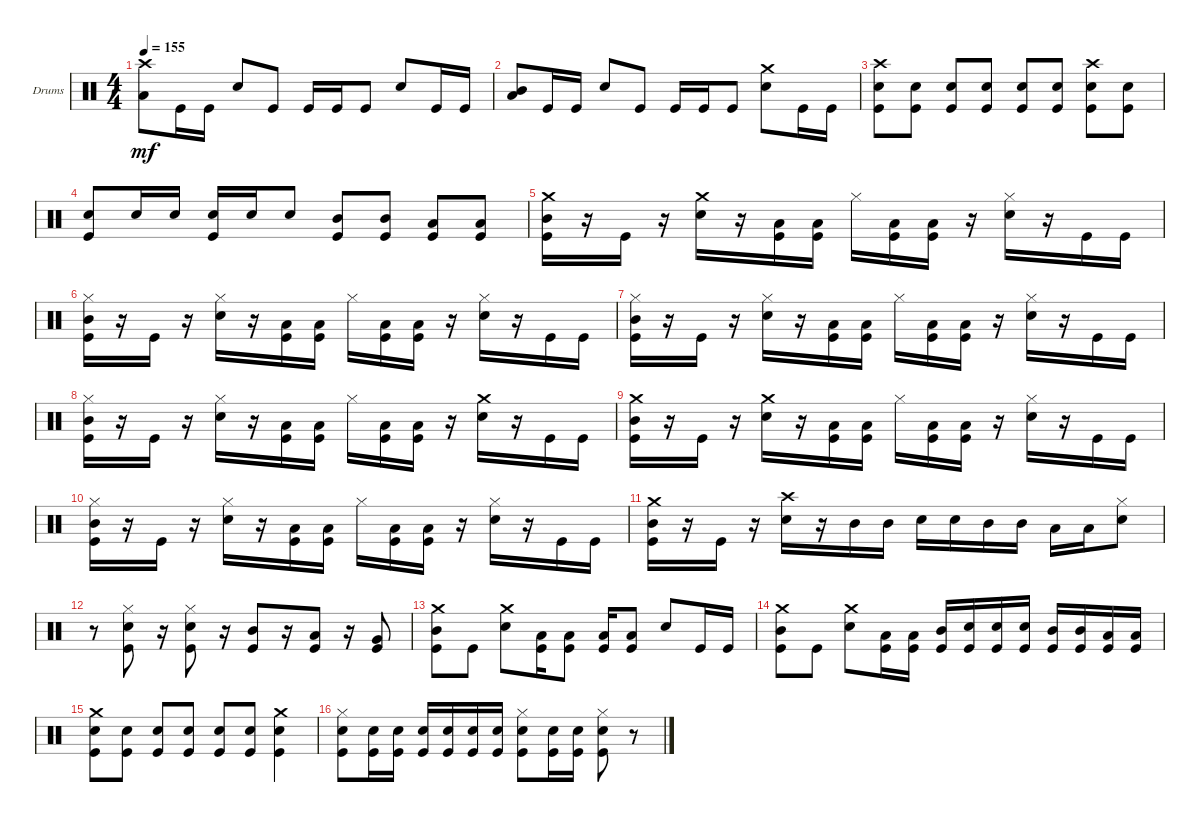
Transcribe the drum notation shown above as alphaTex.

\defaultSystemsLayout 4
\bracketExtendMode groupsimilarinstruments
\firstSystemTrackNameOrientation horizontal
\otherSystemsTrackNameOrientation horizontal
\track ("Drumkit" "Drums") {instrument percussion}
\staff {score}
\articulation defaults
\ts (4 4)
\tempo 155
\clef neutral
\ks c
("Low Tom (hit)" "Crash high (hit)").8{dy mf} "Kick (hit)".16 "Kick (hit)".16 "Snare (hit) 2".8 "Kick (hit)".8 "Kick (hit)".16 "Kick (hit)".16 "Kick (hit)".8 "Snare (hit) 2".8 "Kick (hit)".16 "Kick (hit)".16 |
("Low Tom (hit)" "Mid Tom (hit)").8 "Kick (hit)".16 "Kick (hit)".16 "Snare (hit) 2".8 "Kick (hit)".8 "Kick (hit)".16 "Kick (hit)".16 "Kick (hit)".8 ("Snare (hit) 2" "Crash medium (hit)").8 "Kick (hit)".16 "Kick (hit)".16 |
("Kick (hit)" "Snare (hit) 2" "Crash high (hit)").8 ("Kick (hit)" "Snare (hit) 2").8 ("Kick (hit)" "Snare (hit) 2").8 ("Kick (hit)" "Snare (hit) 2").8 ("Kick (hit)" "Snare (hit) 2").8 ("Kick (hit)" "Snare (hit) 2").8 ("Kick (hit)" "Snare (hit) 2" "Crash high (hit)").8 ("Kick (hit)" "Snare (hit) 2").8 |
("Kick (hit)" "Snare (hit) 2").8 "Snare (hit) 2".16 "Snare (hit) 2".16 ("Kick (hit)" "Snare (hit) 2").16 "Snare (hit) 2".16 "Snare (hit) 2".8 ("Kick (hit)" "Mid Tom (hit)").8 ("Kick (hit)" "Mid Tom (hit)").8 ("Kick (hit)" "Low Tom (hit)").8 ("Kick (hit)" "Low Tom (hit)").8 |
("Kick (hit)" "Mid Tom (hit)" "Crash medium (hit)").16 r.16 "Kick (hit)".16 r.16 ("Snare (hit) 2" "Crash medium (hit)").16 r.16 ("Kick (hit)" "Low Tom (hit)").16 ("Kick (hit)" "Low Tom (hit)").16 "Hi-Hat (closed)".16 ("Kick (hit)" "Low Tom (hit)").16 ("Kick (hit)" "Low Tom (hit)").16 r.16 ("Snare (hit) 2" "Hi-Hat (closed)").16 r.16 "Kick (hit)".16 "Kick (hit)".16 |
("Kick (hit)" "Mid Tom (hit)" "Hi-Hat (closed)").16 r.16 "Kick (hit)".16 r.16 ("Snare (hit) 2" "Hi-Hat (closed)").16 r.16 ("Kick (hit)" "Low Tom (hit)").16 ("Kick (hit)" "Low Tom (hit)").16 "Hi-Hat (closed)".16 ("Kick (hit)" "Low Tom (hit)").16 ("Kick (hit)" "Low Tom (hit)").16 r.16 ("Snare (hit) 2" "Hi-Hat (closed)").16 r.16 "Kick (hit)".16 "Kick (hit)".16 |
("Kick (hit)" "Mid Tom (hit)" "Hi-Hat (closed)").16 r.16 "Kick (hit)".16 r.16 ("Snare (hit) 2" "Hi-Hat (closed)").16 r.16 ("Kick (hit)" "Low Tom (hit)").16 ("Kick (hit)" "Low Tom (hit)").16 "Hi-Hat (closed)".16 ("Kick (hit)" "Low Tom (hit)").16 ("Kick (hit)" "Low Tom (hit)").16 r.16 ("Snare (hit) 2" "Hi-Hat (closed)").16 r.16 "Kick (hit)".16 "Kick (hit)".16 |
("Kick (hit)" "Mid Tom (hit)" "Hi-Hat (closed)").16 r.16 "Kick (hit)".16 r.16 ("Snare (hit) 2" "Hi-Hat (closed)").16 r.16 ("Kick (hit)" "Low Tom (hit)").16 ("Kick (hit)" "Low Tom (hit)").16 "Hi-Hat (closed)".16 ("Kick (hit)" "Low Tom (hit)").16 ("Kick (hit)" "Low Tom (hit)").16 r.16 ("Snare (hit) 2" "Crash medium (hit)").16 r.16 "Kick (hit)".16 "Kick (hit)".16 |
("Kick (hit)" "Mid Tom (hit)" "Crash medium (hit)").16 r.16 "Kick (hit)".16 r.16 ("Snare (hit) 2" "Crash medium (hit)").16 r.16 ("Kick (hit)" "Low Tom (hit)").16 ("Kick (hit)" "Low Tom (hit)").16 "Hi-Hat (closed)".16 ("Kick (hit)" "Low Tom (hit)").16 ("Kick (hit)" "Low Tom (hit)").16 r.16 ("Snare (hit) 2" "Hi-Hat (closed)").16 r.16 "Kick (hit)".16 "Kick (hit)".16 |
("Kick (hit)" "Mid Tom (hit)" "Hi-Hat (closed)").16 r.16 "Kick (hit)".16 r.16 ("Snare (hit) 2" "Hi-Hat (closed)").16 r.16 ("Kick (hit)" "Low Tom (hit)").16 ("Kick (hit)" "Low Tom (hit)").16 "Hi-Hat (closed)".16 ("Kick (hit)" "Low Tom (hit)").16 ("Kick (hit)" "Low Tom (hit)").16 r.16 ("Snare (hit) 2" "Hi-Hat (closed)").16 r.16 "Kick (hit)".16 "Kick (hit)".16 |
("Kick (hit)" "Mid Tom (hit)" "Crash medium (hit)").16 r.16 "Kick (hit)".16 r.16 ("Snare (hit) 2" "Crash high (hit)").16 r.16 "Mid Tom (hit)".16 "Mid Tom (hit)".16 "Snare (hit) 2".16 "Snare (hit) 2".16 "Mid Tom (hit)".16 "Mid Tom (hit)".16 "Low Tom (hit)".16 "Low Tom (hit)".16 ("Snare (hit) 2" "Hi-Hat (closed)").8 |
r.8 ("Kick (hit)" "Snare (hit) 2" "Hi-Hat (closed)").8 r.16 ("Kick (hit)" "Snare (hit) 2" "Hi-Hat (closed)").8 r.16 ("Kick (hit)" "Mid Tom (hit)").8 r.16 ("Kick (hit)" "Low Tom (hit)").8 r.16 ("Kick (hit)" "Very Low Tom (hit)").8 |
("Kick (hit)" "Mid Tom (hit)" "Crash medium (hit)").8 "Kick (hit)".8 ("Snare (hit) 2" "Crash medium (hit)").8 ("Kick (hit)" "Low Tom (hit)").16 ("Kick (hit)" "Low Tom (hit)").8 ("Kick (hit)" "Low Tom (hit)").16 ("Kick (hit)" "Low Tom (hit)").8 "Snare (hit) 2".8 "Kick (hit)".16 "Kick (hit)".16 |
("Kick (hit)" "Mid Tom (hit)" "Crash medium (hit)").8 "Kick (hit)".8 ("Snare (hit) 2" "Crash medium (hit)").8 ("Kick (hit)" "Low Tom (hit)").16 ("Kick (hit)" "Low Tom (hit)").16 ("Kick (hit)" "Mid Tom (hit)").16 ("Kick (hit)" "Snare (hit) 2").16 ("Kick (hit)" "Snare (hit) 2").16 ("Kick (hit)" "Snare (hit) 2").16 ("Kick (hit)" "Mid Tom (hit)").16 ("Kick (hit)" "Mid Tom (hit)").16 ("Kick (hit)" "Low Tom (hit)").16 ("Kick (hit)" "Low Tom (hit)").16 |
("Kick (hit)" "Snare (hit) 2" "Crash medium (hit)").8 ("Kick (hit)" "Snare (hit) 2").8 ("Kick (hit)" "Snare (hit) 2").8 ("Kick (hit)" "Snare (hit) 2").8 ("Kick (hit)" "Snare (hit) 2").8 ("Kick (hit)" "Snare (hit) 2").8 ("Kick (hit)" "Snare (hit) 2" "Crash medium (hit)").4 |
("Kick (hit)" "Snare (hit) 2" "Hi-Hat (closed)").8 ("Kick (hit)" "Snare (hit) 2").16 ("Kick (hit)" "Snare (hit) 2").16 ("Kick (hit)" "Snare (hit) 2").16 ("Kick (hit)" "Snare (hit) 2").16 ("Kick (hit)" "Snare (hit) 2").16 ("Kick (hit)" "Snare (hit) 2").16 ("Kick (hit)" "Snare (hit) 2" "Hi-Hat (closed)").8 ("Kick (hit)" "Snare (hit) 2").16 ("Kick (hit)" "Snare (hit) 2").16 ("Kick (hit)" "Snare (hit) 2" "Hi-Hat (closed)").8 r.8
